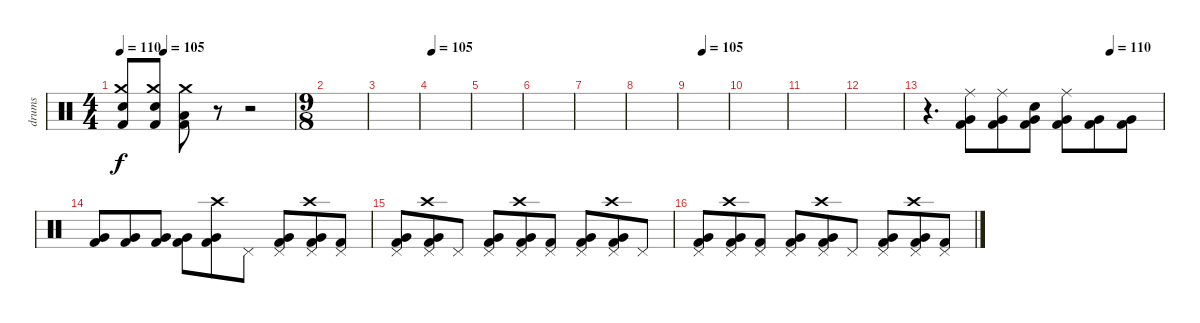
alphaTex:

\track ("drums" "drums") {instrument percussion}
\staff {score}
\articulation defaults
\ts (4 4)
\tempo 110
\tempo (105 0.25)
\clef neutral
\ks c
("Electric Snare (hit)" "Crash medium (hit)" "Kick (hit) 2").8{dy f} ("Electric Snare (hit)" "Crash medium (hit)" "Kick (hit) 2").8 ("Low Floor Tom (hit)" "Crash medium (hit)" "Kick (hit) 2").8 r.8 r.2 |
\ts (9 8)
|
|
\tempo 105
|
|
|
|
|
\tempo (105 0.3333333333333333)
|
|
|
|
\tempo (110 0.7777777777777778)
r.4{d} ("Very Low Tom (hit)" "Ride (middle)" "Kick (hit) 2").8 ("Very Low Tom (hit)" "Ride (middle)" "Kick (hit) 2").8 ("Very Low Tom (hit)" "Snare (hit)" "Kick (hit) 2").8 ("Very Low Tom (hit)" "Ride (middle)" "Kick (hit) 2").8 ("Very Low Tom (hit)" "Kick (hit) 2").8 ("Very Low Tom (hit)" "Kick (hit) 2").8 |
("Very Low Tom (hit)" "Kick (hit) 2").8 ("Very Low Tom (hit)" "Kick (hit) 2").8 ("Very Low Tom (hit)" "Kick (hit) 2").8 ("Very Low Tom (hit)" "Kick (hit) 2").8 ("Very Low Tom (hit)" "Crash high (hit)" "Kick (hit) 2").8 "Pedal Hi-Hat (hit)".8 ("Very Low Tom (hit)" "Pedal Hi-Hat (hit)" "Kick (hit) 2").8 ("Very Low Tom (hit)" "Crash high (hit)" "Pedal Hi-Hat (hit)" "Kick (hit) 2").8 ("Pedal Hi-Hat (hit)" "Kick (hit) 2").8 |
("Very Low Tom (hit)" "Pedal Hi-Hat (hit)" "Kick (hit) 2").8 ("Very Low Tom (hit)" "Crash high (hit)" "Pedal Hi-Hat (hit)" "Kick (hit) 2").8 "Pedal Hi-Hat (hit)".8 ("Very Low Tom (hit)" "Pedal Hi-Hat (hit)" "Kick (hit) 2").8 ("Very Low Tom (hit)" "Crash high (hit)" "Pedal Hi-Hat (hit)" "Kick (hit) 2").8 ("Pedal Hi-Hat (hit)" "Kick (hit) 2").8 ("Very Low Tom (hit)" "Pedal Hi-Hat (hit)" "Kick (hit) 2").8 ("Very Low Tom (hit)" "Crash high (hit)" "Pedal Hi-Hat (hit)" "Kick (hit) 2").8 "Pedal Hi-Hat (hit)".8 |
("Very Low Tom (hit)" "Pedal Hi-Hat (hit)" "Kick (hit) 2").8 ("Very Low Tom (hit)" "Crash high (hit)" "Pedal Hi-Hat (hit)" "Kick (hit) 2").8 ("Pedal Hi-Hat (hit)" "Kick (hit) 2").8 ("Very Low Tom (hit)" "Pedal Hi-Hat (hit)" "Kick (hit) 2").8 ("Very Low Tom (hit)" "Crash high (hit)" "Pedal Hi-Hat (hit)" "Kick (hit) 2").8 "Pedal Hi-Hat (hit)".8 ("Very Low Tom (hit)" "Pedal Hi-Hat (hit)" "Kick (hit) 2").8 ("Very Low Tom (hit)" "Crash high (hit)" "Pedal Hi-Hat (hit)" "Kick (hit) 2").8 ("Pedal Hi-Hat (hit)" "Kick (hit) 2").8
